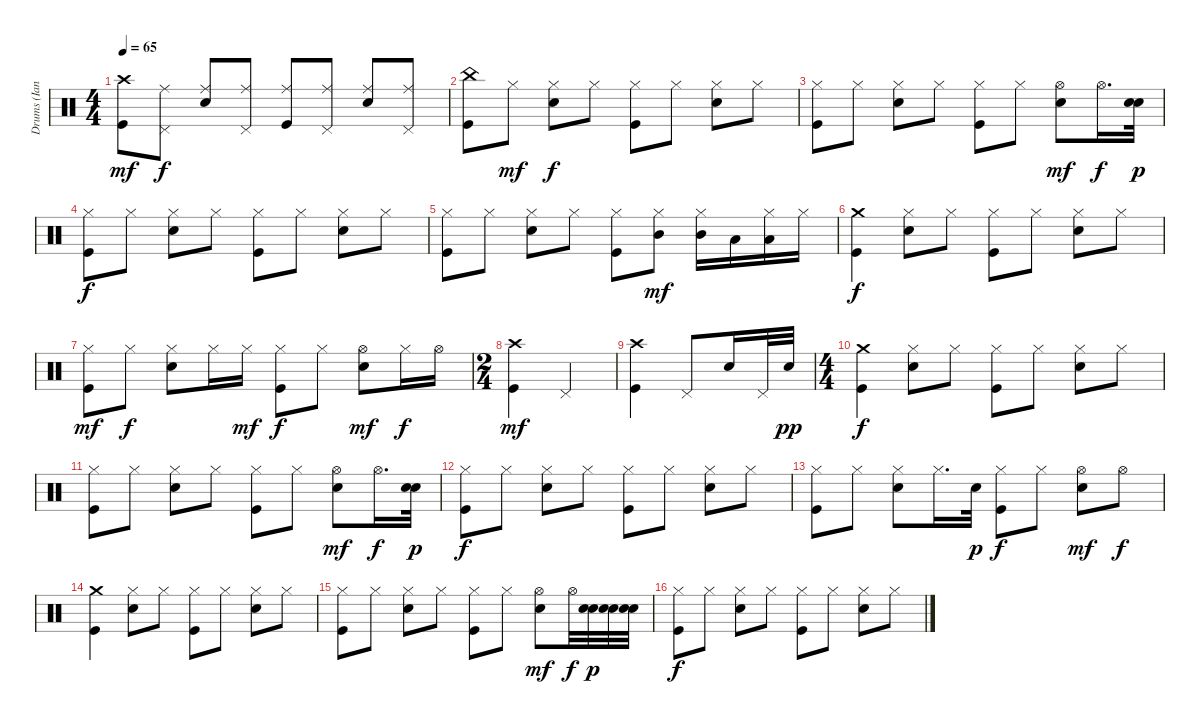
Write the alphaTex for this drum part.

\track ("Drums (Ian Paice)" "Drums (Ian") {instrument percussion}
\staff {score}
\articulation defaults
\ts (4 4)
\tempo 65
\clef neutral
\ks c
("Crash high (hit)" "Kick (hit)").8{dy mf} ("Ride (middle)" "Pedal Hi-Hat (hit)").8{dy f} ("Ride (middle)" "Electric Snare (hit)").8 ("Ride (middle)" "Pedal Hi-Hat (hit)").8 ("Ride (middle)" "Kick (hit)").8 ("Ride (middle)" "Pedal Hi-Hat (hit)").8 ("Ride (middle)" "Electric Snare (hit)").8 ("Ride (middle)" "Pedal Hi-Hat (hit)").8 |
("China (hit)" "Kick (hit)").8 "Hi-Hat (closed)".8{dy mf} ("Hi-Hat (closed)" "Electric Snare (hit)").8{dy f} "Hi-Hat (closed)".8 ("Hi-Hat (closed)" "Kick (hit)").8 "Hi-Hat (closed)".8 ("Hi-Hat (closed)" "Electric Snare (hit)").8 "Hi-Hat (closed)".8 |
("Hi-Hat (closed)" "Kick (hit)").8 "Hi-Hat (closed)".8 ("Hi-Hat (closed)" "Electric Snare (hit)").8 "Hi-Hat (closed)".8 ("Hi-Hat (closed)" "Kick (hit)").8 "Hi-Hat (closed)".8 ("Hi-Hat (open)" "Electric Snare (hit)").8{dy mf} "Hi-Hat (open)".16{d dy f} ("Electric Snare (hit)" "Electric Snare (hit)").32{dy p} |
("Hi-Hat (closed)" "Kick (hit)").8{dy f} "Hi-Hat (closed)".8 ("Hi-Hat (closed)" "Electric Snare (hit)").8 "Hi-Hat (closed)".8 ("Hi-Hat (closed)" "Kick (hit)").8 "Hi-Hat (closed)".8 ("Hi-Hat (closed)" "Electric Snare (hit)").8 "Hi-Hat (closed)".8 |
("Hi-Hat (closed)" "Kick (hit)").8 "Hi-Hat (closed)".8 ("Hi-Hat (closed)" "Electric Snare (hit)").8 "Hi-Hat (closed)".8 ("Hi-Hat (closed)" "Kick (hit)").8 ("Hi-Hat (closed)" "Mid Tom (hit)").8{dy mf} ("Hi-Hat (closed)" "Mid Tom (hit)").16 "Low Tom (hit)".16 ("Hi-Hat (closed)" "Low Tom (hit)").16 "Hi-Hat (closed)".16 |
("Crash medium (hit)" "Kick (hit)").4{dy f} ("Hi-Hat (closed)" "Electric Snare (hit)").8 "Hi-Hat (closed)".8 ("Hi-Hat (closed)" "Kick (hit)").8 "Hi-Hat (closed)".8 ("Hi-Hat (closed)" "Electric Snare (hit)").8 "Hi-Hat (closed)".8 |
("Hi-Hat (closed)" "Kick (hit)").8{dy mf} "Hi-Hat (closed)".8{dy f} ("Hi-Hat (closed)" "Electric Snare (hit)").8 "Hi-Hat (closed)".16 "Hi-Hat (closed)".16{dy mf} ("Hi-Hat (closed)" "Kick (hit)").8{dy f} "Hi-Hat (closed)".8 ("Hi-Hat (open)" "Electric Snare (hit)").8{dy mf} "Hi-Hat (closed)".16{dy f} "Hi-Hat (open)".16 |
\ts (2 4)
("Crash high (hit)" "Kick (hit)").4{dy mf} "Pedal Hi-Hat (hit)".4 |
("Crash high (hit)" "Kick (hit)").4 "Pedal Hi-Hat (hit)".8 "Electric Snare (hit)".16 "Pedal Hi-Hat (hit)".32 "Electric Snare (hit)".32{dy pp} |
\ts (4 4)
("Crash medium (hit)" "Kick (hit)").4{dy f} ("Hi-Hat (closed)" "Electric Snare (hit)").8 "Hi-Hat (closed)".8 ("Hi-Hat (closed)" "Kick (hit)").8 "Hi-Hat (closed)".8 ("Hi-Hat (closed)" "Electric Snare (hit)").8 "Hi-Hat (closed)".8 |
("Hi-Hat (closed)" "Kick (hit)").8 "Hi-Hat (closed)".8 ("Hi-Hat (closed)" "Electric Snare (hit)").8 "Hi-Hat (closed)".8 ("Hi-Hat (closed)" "Kick (hit)").8 "Hi-Hat (closed)".8 ("Hi-Hat (open)" "Electric Snare (hit)").8{dy mf} "Hi-Hat (open)".16{d dy f} ("Electric Snare (hit)" "Electric Snare (hit)").32{dy p} |
("Hi-Hat (closed)" "Kick (hit)").8{dy f} "Hi-Hat (closed)".8 ("Hi-Hat (closed)" "Electric Snare (hit)").8 "Hi-Hat (closed)".8 ("Hi-Hat (closed)" "Kick (hit)").8 "Hi-Hat (closed)".8 ("Hi-Hat (closed)" "Electric Snare (hit)").8 "Hi-Hat (closed)".8 |
("Hi-Hat (closed)" "Kick (hit)").8 "Hi-Hat (closed)".8 ("Hi-Hat (closed)" "Electric Snare (hit)").8 "Hi-Hat (closed)".16{d} "Electric Snare (hit)".32{dy p} ("Hi-Hat (closed)" "Kick (hit)").8{dy f} "Hi-Hat (closed)".8 ("Hi-Hat (open)" "Electric Snare (hit)").8{dy mf} "Hi-Hat (open)".8{dy f} |
("Crash medium (hit)" "Kick (hit)").4 ("Hi-Hat (closed)" "Electric Snare (hit)").8 "Hi-Hat (closed)".8 ("Hi-Hat (closed)" "Kick (hit)").8 "Hi-Hat (closed)".8 ("Hi-Hat (closed)" "Electric Snare (hit)").8 "Hi-Hat (closed)".8 |
("Hi-Hat (closed)" "Kick (hit)").8 "Hi-Hat (closed)".8 ("Hi-Hat (closed)" "Electric Snare (hit)").8 "Hi-Hat (closed)".8 ("Hi-Hat (closed)" "Kick (hit)").8 "Hi-Hat (closed)".8 ("Hi-Hat (open)" "Electric Snare (hit)").8{dy mf} "Hi-Hat (open)".32{dy f} ("Electric Snare (hit)" "Electric Snare (hit)").32{dy p} ("Electric Snare (hit)" "Electric Snare (hit)").32 ("Electric Snare (hit)" "Electric Snare (hit)").32 |
("Hi-Hat (closed)" "Kick (hit)").8{dy f} "Hi-Hat (closed)".8 ("Hi-Hat (closed)" "Electric Snare (hit)").8 "Hi-Hat (closed)".8 ("Hi-Hat (closed)" "Kick (hit)").8 "Hi-Hat (closed)".8 ("Hi-Hat (closed)" "Electric Snare (hit)").8 "Hi-Hat (closed)".8
